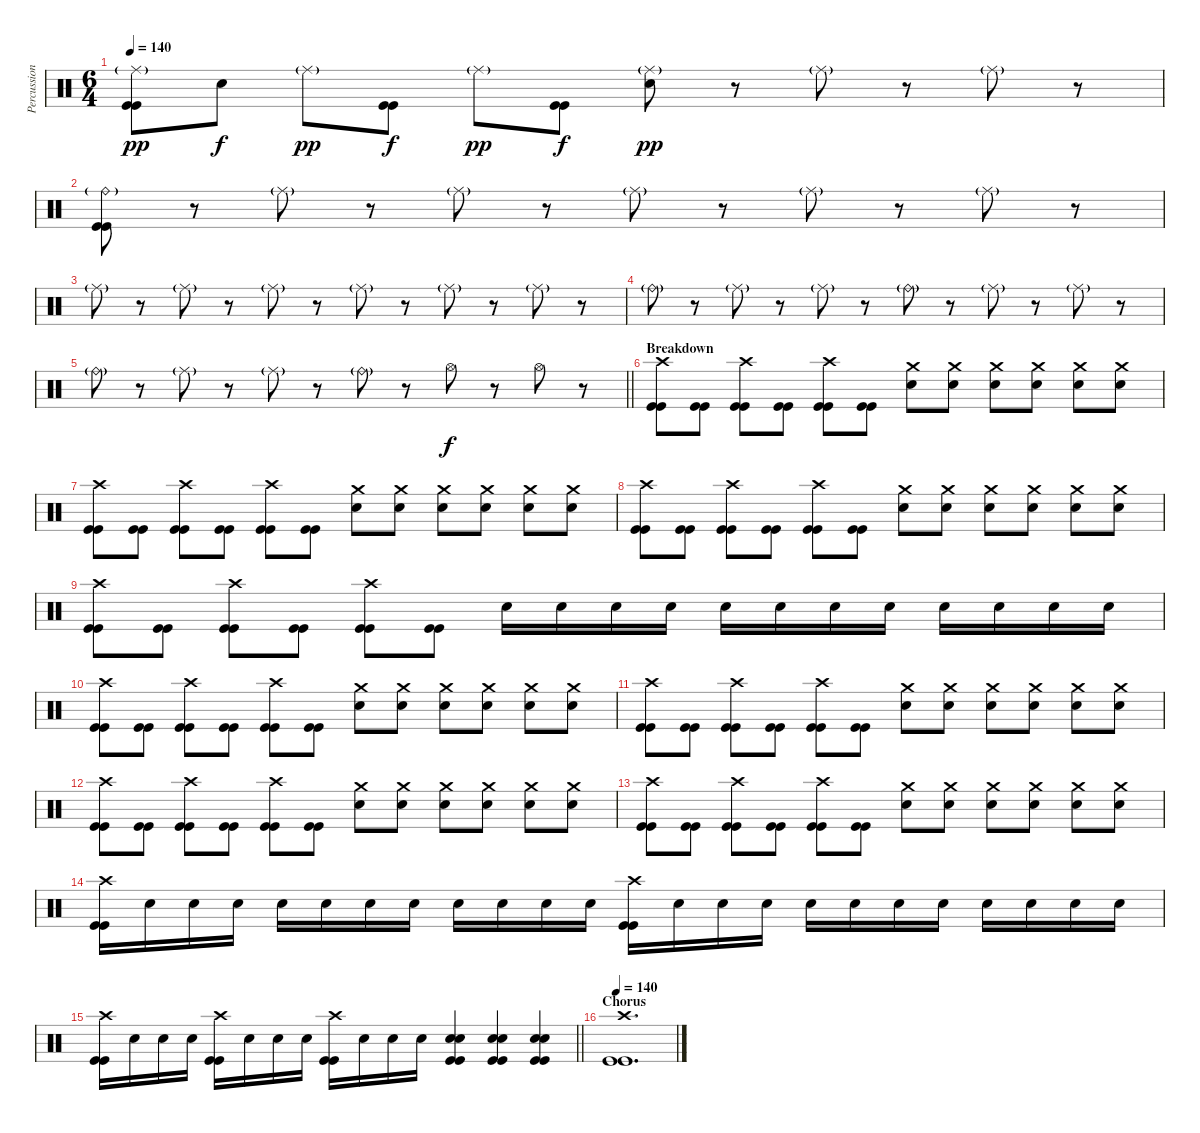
\track ("Percussion" "Percussion") {instrument percussion}
\staff {score}
\articulation defaults
\ts (6 4)
\tempo 140
\clef neutral
\ks c
("Ride (middle)"{g} "Kick (hit)" "Kick (hit)").8{dy pp} "Snare (hit) 2".8{dy f} "Ride (middle)"{g}.8{dy pp} ("Kick (hit)" "Kick (hit)").8{dy f} "Ride (middle)"{g}.8{dy pp} ("Kick (hit)" "Kick (hit)").8{dy f} ("Ride (middle)"{g} "Snare (hit) 2").8{dy pp} r.8 "Ride (middle)"{g}.8 r.8 "Ride (middle)"{g}.8 r.8 |
("Ride (bell)"{g} "Kick (hit)" "Kick (hit)").8 r.8 "Ride (middle)"{g}.8 r.8 "Ride (middle)"{g}.8 r.8 "Ride (middle)"{g}.8 r.8 "Ride (middle)"{g}.8 r.8 "Ride (middle)"{g}.8 r.8 |
"Ride (middle)"{g}.8 r.8 "Ride (middle)"{g}.8 r.8 "Ride (middle)"{g}.8 r.8 "Ride (middle)"{g}.8 r.8 "Ride (middle)"{g}.8 r.8 "Ride (middle)"{g}.8 r.8 |
"Ride (bell)"{g}.8 r.8 "Ride (middle)"{g}.8 r.8 "Ride (middle)"{g}.8 r.8 "Ride (bell)"{g}.8 r.8 "Ride (middle)"{g}.8 r.8 "Ride (middle)"{g}.8 r.8 |
\barLineRight lightlight "Ride (bell)"{g}.8
r.8 "Ride (middle)"{g}.8 r.8 "Ride (middle)"{g}.8 r.8 "Ride (bell)"{g}.8 r.8 "Hi-Hat (open)".8{dy f} r.8 "Hi-Hat (open)".8 r.8 |
\section ("" "Breakdown")
("Crash high (hit)" "Kick (hit)" "Kick (hit)").8 ("Kick (hit)" "Kick (hit)").8 ("Crash high (hit)" "Kick (hit)" "Kick (hit)").8 ("Kick (hit)" "Kick (hit)").8 ("Crash high (hit)" "Kick (hit)" "Kick (hit)").8 ("Kick (hit)" "Kick (hit)").8 ("Crash medium (hit)" "Snare (hit) 2").8 ("Crash medium (hit)" "Snare (hit) 2").8 ("Crash medium (hit)" "Snare (hit) 2").8 ("Crash medium (hit)" "Snare (hit) 2").8 ("Crash medium (hit)" "Snare (hit) 2").8 ("Crash medium (hit)" "Snare (hit) 2").8 |
("Crash high (hit)" "Kick (hit)" "Kick (hit)").8 ("Kick (hit)" "Kick (hit)").8 ("Crash high (hit)" "Kick (hit)" "Kick (hit)").8 ("Kick (hit)" "Kick (hit)").8 ("Crash high (hit)" "Kick (hit)" "Kick (hit)").8 ("Kick (hit)" "Kick (hit)").8 ("Crash medium (hit)" "Snare (hit) 2").8 ("Crash medium (hit)" "Snare (hit) 2").8 ("Crash medium (hit)" "Snare (hit) 2").8 ("Crash medium (hit)" "Snare (hit) 2").8 ("Crash medium (hit)" "Snare (hit) 2").8 ("Crash medium (hit)" "Snare (hit) 2").8 |
("Crash high (hit)" "Kick (hit)" "Kick (hit)").8 ("Kick (hit)" "Kick (hit)").8 ("Crash high (hit)" "Kick (hit)" "Kick (hit)").8 ("Kick (hit)" "Kick (hit)").8 ("Crash high (hit)" "Kick (hit)" "Kick (hit)").8 ("Kick (hit)" "Kick (hit)").8 ("Crash medium (hit)" "Snare (hit) 2").8 ("Crash medium (hit)" "Snare (hit) 2").8 ("Crash medium (hit)" "Snare (hit) 2").8 ("Crash medium (hit)" "Snare (hit) 2").8 ("Crash medium (hit)" "Snare (hit) 2").8 ("Crash medium (hit)" "Snare (hit) 2").8 |
("Crash high (hit)" "Kick (hit)" "Kick (hit)").8 ("Kick (hit)" "Kick (hit)").8 ("Crash high (hit)" "Kick (hit)" "Kick (hit)").8 ("Kick (hit)" "Kick (hit)").8 ("Crash high (hit)" "Kick (hit)" "Kick (hit)").8 ("Kick (hit)" "Kick (hit)").8 "Snare (hit) 2".16 "Snare (hit) 2".16 "Snare (hit) 2".16 "Snare (hit) 2".16 "Snare (hit) 2".16 "Snare (hit) 2".16 "Snare (hit) 2".16 "Snare (hit) 2".16 "Snare (hit) 2".16 "Snare (hit) 2".16 "Snare (hit) 2".16 "Snare (hit) 2".16 |
("Crash high (hit)" "Kick (hit)" "Kick (hit)").8 ("Kick (hit)" "Kick (hit)").8 ("Crash high (hit)" "Kick (hit)" "Kick (hit)").8 ("Kick (hit)" "Kick (hit)").8 ("Crash high (hit)" "Kick (hit)" "Kick (hit)").8 ("Kick (hit)" "Kick (hit)").8 ("Crash medium (hit)" "Snare (hit) 2").8 ("Crash medium (hit)" "Snare (hit) 2").8 ("Crash medium (hit)" "Snare (hit) 2").8 ("Crash medium (hit)" "Snare (hit) 2").8 ("Crash medium (hit)" "Snare (hit) 2").8 ("Crash medium (hit)" "Snare (hit) 2").8 |
("Crash high (hit)" "Kick (hit)" "Kick (hit)").8 ("Kick (hit)" "Kick (hit)").8 ("Crash high (hit)" "Kick (hit)" "Kick (hit)").8 ("Kick (hit)" "Kick (hit)").8 ("Crash high (hit)" "Kick (hit)" "Kick (hit)").8 ("Kick (hit)" "Kick (hit)").8 ("Crash medium (hit)" "Snare (hit) 2").8 ("Crash medium (hit)" "Snare (hit) 2").8 ("Crash medium (hit)" "Snare (hit) 2").8 ("Crash medium (hit)" "Snare (hit) 2").8 ("Crash medium (hit)" "Snare (hit) 2").8 ("Crash medium (hit)" "Snare (hit) 2").8 |
("Crash high (hit)" "Kick (hit)" "Kick (hit)").8 ("Kick (hit)" "Kick (hit)").8 ("Crash high (hit)" "Kick (hit)" "Kick (hit)").8 ("Kick (hit)" "Kick (hit)").8 ("Crash high (hit)" "Kick (hit)" "Kick (hit)").8 ("Kick (hit)" "Kick (hit)").8 ("Crash medium (hit)" "Snare (hit) 2").8 ("Crash medium (hit)" "Snare (hit) 2").8 ("Crash medium (hit)" "Snare (hit) 2").8 ("Crash medium (hit)" "Snare (hit) 2").8 ("Crash medium (hit)" "Snare (hit) 2").8 ("Crash medium (hit)" "Snare (hit) 2").8 |
("Crash high (hit)" "Kick (hit)" "Kick (hit)").8 ("Kick (hit)" "Kick (hit)").8 ("Crash high (hit)" "Kick (hit)" "Kick (hit)").8 ("Kick (hit)" "Kick (hit)").8 ("Crash high (hit)" "Kick (hit)" "Kick (hit)").8 ("Kick (hit)" "Kick (hit)").8 ("Crash medium (hit)" "Snare (hit) 2").8 ("Crash medium (hit)" "Snare (hit) 2").8 ("Crash medium (hit)" "Snare (hit) 2").8 ("Crash medium (hit)" "Snare (hit) 2").8 ("Crash medium (hit)" "Snare (hit) 2").8 ("Crash medium (hit)" "Snare (hit) 2").8 |
("Crash high (hit)" "Kick (hit)" "Kick (hit)").16 "Snare (hit) 2".16 "Snare (hit) 2".16 "Snare (hit) 2".16 "Snare (hit) 2".16 "Snare (hit) 2".16 "Snare (hit) 2".16 "Snare (hit) 2".16 "Snare (hit) 2".16 "Snare (hit) 2".16 "Snare (hit) 2".16 "Snare (hit) 2".16 ("Crash high (hit)" "Kick (hit)" "Kick (hit)").16 "Snare (hit) 2".16 "Snare (hit) 2".16 "Snare (hit) 2".16 "Snare (hit) 2".16 "Snare (hit) 2".16 "Snare (hit) 2".16 "Snare (hit) 2".16 "Snare (hit) 2".16 "Snare (hit) 2".16 "Snare (hit) 2".16 "Snare (hit) 2".16 |
\barLineRight lightlight
("Crash high (hit)" "Kick (hit)" "Kick (hit)").16 "Snare (hit) 2".16 "Snare (hit) 2".16 "Snare (hit) 2".16 ("Crash high (hit)" "Kick (hit)" "Kick (hit)").16 "Snare (hit) 2".16 "Snare (hit) 2".16 "Snare (hit) 2".16 ("Crash high (hit)" "Kick (hit)" "Kick (hit)").16 "Snare (hit) 2".16 "Snare (hit) 2".16 "Snare (hit) 2".16 ("Snare (hit) 2" "Snare (hit) 2" "Kick (hit)" "Kick (hit)").4 ("Snare (hit) 2" "Snare (hit) 2" "Kick (hit)" "Kick (hit)").4 ("Snare (hit) 2" "Snare (hit) 2" "Kick (hit)" "Kick (hit)").4 |
\section ("" "Chorus")
\tempo 140
("Crash high (hit)" "Kick (hit)" "Kick (hit)").1{d}
